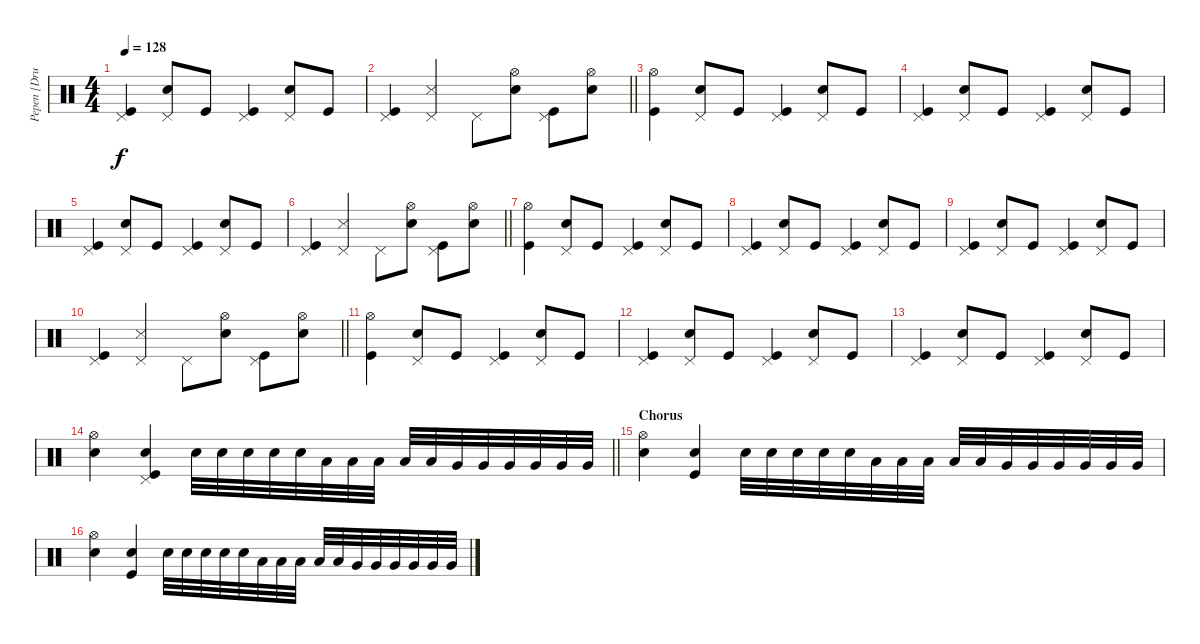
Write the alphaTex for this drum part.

\track ("Pepen [Drum]" "Pepen [Dru") {instrument percussion}
\staff {score}
\articulation defaults
\ts (4 4)
\tempo 128
\clef neutral
\ks c
("Pedal Hi-Hat (hit)" "Kick (hit)").4{dy f} ("Pedal Hi-Hat (hit)" "Electric Snare (hit)").8 "Kick (hit)".8 ("Pedal Hi-Hat (hit)" "Kick (hit)").4 ("Pedal Hi-Hat (hit)" "Electric Snare (hit)").8 "Kick (hit)".8 |
\barLineRight lightlight
("Pedal Hi-Hat (hit)" "Kick (hit)").4 ("Pedal Hi-Hat (hit)" "Snare (side stick) 3").4 "Pedal Hi-Hat (hit)".8 ("Hi-Hat (open)" "Electric Snare (hit)").8 ("Pedal Hi-Hat (hit)" "Kick (hit)").8 ("Hi-Hat (open)" "Electric Snare (hit)").8 |
("Hi-Hat (open)" "Kick (hit)").4 ("Pedal Hi-Hat (hit)" "Electric Snare (hit)").8 "Kick (hit)".8 ("Pedal Hi-Hat (hit)" "Kick (hit)").4 ("Pedal Hi-Hat (hit)" "Electric Snare (hit)").8 "Kick (hit)".8 |
("Pedal Hi-Hat (hit)" "Kick (hit)").4 ("Pedal Hi-Hat (hit)" "Electric Snare (hit)").8 "Kick (hit)".8 ("Pedal Hi-Hat (hit)" "Kick (hit)").4 ("Pedal Hi-Hat (hit)" "Electric Snare (hit)").8 "Kick (hit)".8 |
("Pedal Hi-Hat (hit)" "Kick (hit)").4 ("Pedal Hi-Hat (hit)" "Electric Snare (hit)").8 "Kick (hit)".8 ("Pedal Hi-Hat (hit)" "Kick (hit)").4 ("Pedal Hi-Hat (hit)" "Electric Snare (hit)").8 "Kick (hit)".8 |
\barLineRight lightlight
("Pedal Hi-Hat (hit)" "Kick (hit)").4 ("Pedal Hi-Hat (hit)" "Snare (side stick) 3").4 "Pedal Hi-Hat (hit)".8 ("Hi-Hat (open)" "Electric Snare (hit)").8 ("Pedal Hi-Hat (hit)" "Kick (hit)").8 ("Hi-Hat (open)" "Electric Snare (hit)").8 |
("Hi-Hat (open)" "Kick (hit)").4 ("Pedal Hi-Hat (hit)" "Electric Snare (hit)").8 "Kick (hit)".8 ("Pedal Hi-Hat (hit)" "Kick (hit)").4 ("Pedal Hi-Hat (hit)" "Electric Snare (hit)").8 "Kick (hit)".8 |
("Pedal Hi-Hat (hit)" "Kick (hit)").4 ("Pedal Hi-Hat (hit)" "Electric Snare (hit)").8 "Kick (hit)".8 ("Pedal Hi-Hat (hit)" "Kick (hit)").4 ("Pedal Hi-Hat (hit)" "Electric Snare (hit)").8 "Kick (hit)".8 |
("Pedal Hi-Hat (hit)" "Kick (hit)").4 ("Pedal Hi-Hat (hit)" "Electric Snare (hit)").8 "Kick (hit)".8 ("Pedal Hi-Hat (hit)" "Kick (hit)").4 ("Pedal Hi-Hat (hit)" "Electric Snare (hit)").8 "Kick (hit)".8 |
\barLineRight lightlight
("Pedal Hi-Hat (hit)" "Kick (hit)").4 ("Pedal Hi-Hat (hit)" "Snare (side stick) 3").4 "Pedal Hi-Hat (hit)".8 ("Hi-Hat (open)" "Electric Snare (hit)").8 ("Pedal Hi-Hat (hit)" "Kick (hit)").8 ("Hi-Hat (open)" "Electric Snare (hit)").8 |
("Hi-Hat (open)" "Kick (hit)").4 ("Pedal Hi-Hat (hit)" "Electric Snare (hit)").8 "Kick (hit)".8 ("Pedal Hi-Hat (hit)" "Kick (hit)").4 ("Pedal Hi-Hat (hit)" "Electric Snare (hit)").8 "Kick (hit)".8 |
("Pedal Hi-Hat (hit)" "Kick (hit)").4 ("Pedal Hi-Hat (hit)" "Electric Snare (hit)").8 "Kick (hit)".8 ("Pedal Hi-Hat (hit)" "Kick (hit)").4 ("Pedal Hi-Hat (hit)" "Electric Snare (hit)").8 "Kick (hit)".8 |
("Pedal Hi-Hat (hit)" "Kick (hit)").4 ("Pedal Hi-Hat (hit)" "Electric Snare (hit)").8 "Kick (hit)".8 ("Pedal Hi-Hat (hit)" "Kick (hit)").4 ("Pedal Hi-Hat (hit)" "Electric Snare (hit)").8 "Kick (hit)".8 |
\barLineRight lightlight
("Hi-Hat (open)" "Electric Snare (hit)").4 ("Pedal Hi-Hat (hit)" "Kick (hit)" "Snare (hit) 2").4 "Electric Snare (hit)".32 "Electric Snare (hit)".32 "Electric Snare (hit)".32 "Electric Snare (hit)".32 "Electric Snare (hit)".32 "Low Floor Tom (hit)".32 "Low Floor Tom (hit)".32 "Low Floor Tom (hit)".32 "Low Floor Tom (hit)".32 "Low Floor Tom (hit)".32 "Very Low Tom (hit)".32 "Very Low Tom (hit)".32 "Very Low Tom (hit)".32 "Very Low Tom (hit)".32 "Very Low Tom (hit)".32 "Very Low Tom (hit)".32 |
\section ("" "Chorus")
("Hi-Hat (open)" "Electric Snare (hit)").4 ("Kick (hit)" "Snare (hit) 2").4 "Electric Snare (hit)".32 "Electric Snare (hit)".32 "Electric Snare (hit)".32 "Electric Snare (hit)".32 "Electric Snare (hit)".32 "Low Floor Tom (hit)".32 "Low Floor Tom (hit)".32 "Low Floor Tom (hit)".32 "Low Floor Tom (hit)".32 "Low Floor Tom (hit)".32 "Very Low Tom (hit)".32 "Very Low Tom (hit)".32 "Very Low Tom (hit)".32 "Very Low Tom (hit)".32 "Very Low Tom (hit)".32 "Very Low Tom (hit)".32 |
("Hi-Hat (open)" "Electric Snare (hit)").4 ("Kick (hit)" "Snare (hit) 2").4 "Electric Snare (hit)".32 "Electric Snare (hit)".32 "Electric Snare (hit)".32 "Electric Snare (hit)".32 "Electric Snare (hit)".32 "Low Floor Tom (hit)".32 "Low Floor Tom (hit)".32 "Low Floor Tom (hit)".32 "Low Floor Tom (hit)".32 "Low Floor Tom (hit)".32 "Very Low Tom (hit)".32 "Very Low Tom (hit)".32 "Very Low Tom (hit)".32 "Very Low Tom (hit)".32 "Very Low Tom (hit)".32 "Very Low Tom (hit)".32
